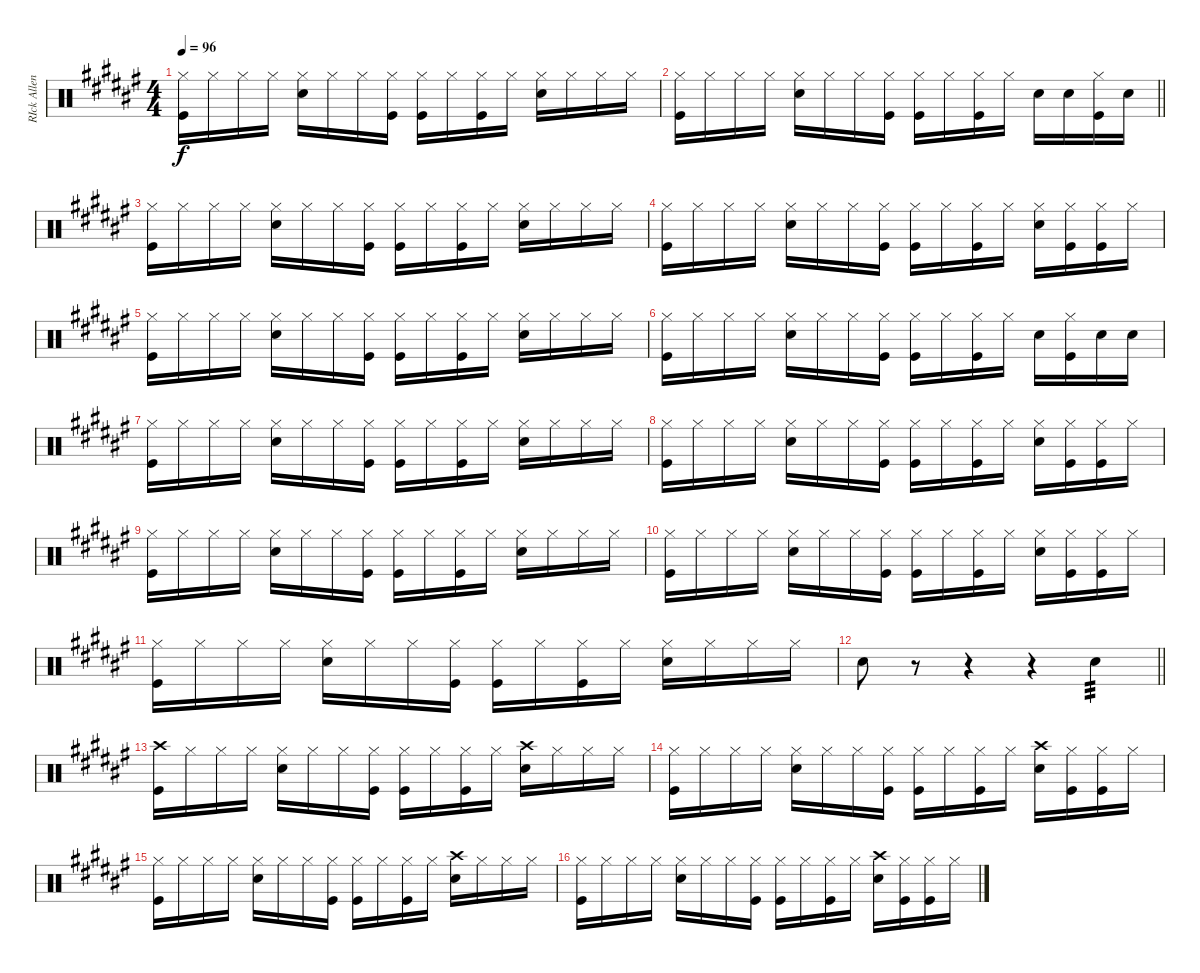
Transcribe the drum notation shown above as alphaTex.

\track ("RIck Allen" "RIck Allen") {instrument percussion}
\staff {score}
\articulation defaults
\ts (4 4)
\tempo 96
\clef neutral
\ks f#
("Hi-Hat (closed)" "Kick (hit)").16{dy f} "Hi-Hat (closed)".16 "Hi-Hat (closed)".16 "Hi-Hat (closed)".16 ("Hi-Hat (closed)" "Snare (hit) 2").16 "Hi-Hat (closed)".16 "Hi-Hat (closed)".16 ("Hi-Hat (closed)" "Kick (hit)").16 ("Hi-Hat (closed)" "Kick (hit)").16 "Hi-Hat (closed)".16 ("Hi-Hat (closed)" "Kick (hit)").16 "Hi-Hat (closed)".16 ("Hi-Hat (closed)" "Snare (hit) 2").16 "Hi-Hat (closed)".16 "Hi-Hat (closed)".16 "Hi-Hat (closed)".16 |
\barLineRight lightlight
("Hi-Hat (closed)" "Kick (hit)").16 "Hi-Hat (closed)".16 "Hi-Hat (closed)".16 "Hi-Hat (closed)".16 ("Hi-Hat (closed)" "Snare (hit) 2").16 "Hi-Hat (closed)".16 "Hi-Hat (closed)".16 ("Hi-Hat (closed)" "Kick (hit)").16 ("Hi-Hat (closed)" "Kick (hit)").16 "Hi-Hat (closed)".16 ("Hi-Hat (closed)" "Kick (hit)").16 "Hi-Hat (closed)".16 "Snare (hit) 2".16 "Snare (hit) 2".16 ("Hi-Hat (closed)" "Kick (hit)").16 "Snare (hit) 2".16 |
("Hi-Hat (closed)" "Kick (hit)").16 "Hi-Hat (closed)".16 "Hi-Hat (closed)".16 "Hi-Hat (closed)".16 ("Hi-Hat (closed)" "Snare (hit) 2").16 "Hi-Hat (closed)".16 "Hi-Hat (closed)".16 ("Hi-Hat (closed)" "Kick (hit)").16 ("Hi-Hat (closed)" "Kick (hit)").16 "Hi-Hat (closed)".16 ("Hi-Hat (closed)" "Kick (hit)").16 "Hi-Hat (closed)".16 ("Hi-Hat (closed)" "Snare (hit) 2").16 "Hi-Hat (closed)".16 "Hi-Hat (closed)".16 "Hi-Hat (closed)".16 |
("Hi-Hat (closed)" "Kick (hit)").16 "Hi-Hat (closed)".16 "Hi-Hat (closed)".16 "Hi-Hat (closed)".16 ("Hi-Hat (closed)" "Snare (hit) 2").16 "Hi-Hat (closed)".16 "Hi-Hat (closed)".16 ("Hi-Hat (closed)" "Kick (hit)").16 ("Hi-Hat (closed)" "Kick (hit)").16 "Hi-Hat (closed)".16 ("Hi-Hat (closed)" "Kick (hit)").16 "Hi-Hat (closed)".16 ("Hi-Hat (closed)" "Snare (hit) 2").16 ("Hi-Hat (closed)" "Kick (hit)").16 ("Hi-Hat (closed)" "Kick (hit)").16 "Hi-Hat (closed)".16 |
("Hi-Hat (closed)" "Kick (hit)").16 "Hi-Hat (closed)".16 "Hi-Hat (closed)".16 "Hi-Hat (closed)".16 ("Hi-Hat (closed)" "Snare (hit) 2").16 "Hi-Hat (closed)".16 "Hi-Hat (closed)".16 ("Hi-Hat (closed)" "Kick (hit)").16 ("Hi-Hat (closed)" "Kick (hit)").16 "Hi-Hat (closed)".16 ("Hi-Hat (closed)" "Kick (hit)").16 "Hi-Hat (closed)".16 ("Hi-Hat (closed)" "Snare (hit) 2").16 "Hi-Hat (closed)".16 "Hi-Hat (closed)".16 "Hi-Hat (closed)".16 |
("Hi-Hat (closed)" "Kick (hit)").16 "Hi-Hat (closed)".16 "Hi-Hat (closed)".16 "Hi-Hat (closed)".16 ("Hi-Hat (closed)" "Snare (hit) 2").16 "Hi-Hat (closed)".16 "Hi-Hat (closed)".16 ("Hi-Hat (closed)" "Kick (hit)").16 ("Hi-Hat (closed)" "Kick (hit)").16 "Hi-Hat (closed)".16 ("Hi-Hat (closed)" "Kick (hit)").16 "Hi-Hat (closed)".16 "Snare (hit) 2".16 ("Hi-Hat (closed)" "Kick (hit)").16 "Snare (hit) 2".16 "Snare (hit) 2".16 |
("Hi-Hat (closed)" "Kick (hit)").16 "Hi-Hat (closed)".16 "Hi-Hat (closed)".16 "Hi-Hat (closed)".16 ("Hi-Hat (closed)" "Snare (hit) 2").16 "Hi-Hat (closed)".16 "Hi-Hat (closed)".16 ("Hi-Hat (closed)" "Kick (hit)").16 ("Hi-Hat (closed)" "Kick (hit)").16 "Hi-Hat (closed)".16 ("Hi-Hat (closed)" "Kick (hit)").16 "Hi-Hat (closed)".16 ("Hi-Hat (closed)" "Snare (hit) 2").16 "Hi-Hat (closed)".16 "Hi-Hat (closed)".16 "Hi-Hat (closed)".16 |
("Hi-Hat (closed)" "Kick (hit)").16 "Hi-Hat (closed)".16 "Hi-Hat (closed)".16 "Hi-Hat (closed)".16 ("Hi-Hat (closed)" "Snare (hit) 2").16 "Hi-Hat (closed)".16 "Hi-Hat (closed)".16 ("Hi-Hat (closed)" "Kick (hit)").16 ("Hi-Hat (closed)" "Kick (hit)").16 "Hi-Hat (closed)".16 ("Hi-Hat (closed)" "Kick (hit)").16 "Hi-Hat (closed)".16 ("Hi-Hat (closed)" "Snare (hit) 2").16 ("Hi-Hat (closed)" "Kick (hit)").16 ("Hi-Hat (closed)" "Kick (hit)").16 "Hi-Hat (closed)".16 |
("Hi-Hat (closed)" "Kick (hit)").16 "Hi-Hat (closed)".16 "Hi-Hat (closed)".16 "Hi-Hat (closed)".16 ("Hi-Hat (closed)" "Snare (hit) 2").16 "Hi-Hat (closed)".16 "Hi-Hat (closed)".16 ("Hi-Hat (closed)" "Kick (hit)").16 ("Hi-Hat (closed)" "Kick (hit)").16 "Hi-Hat (closed)".16 ("Hi-Hat (closed)" "Kick (hit)").16 "Hi-Hat (closed)".16 ("Hi-Hat (closed)" "Snare (hit) 2").16 "Hi-Hat (closed)".16 "Hi-Hat (closed)".16 "Hi-Hat (closed)".16 |
("Hi-Hat (closed)" "Kick (hit)").16 "Hi-Hat (closed)".16 "Hi-Hat (closed)".16 "Hi-Hat (closed)".16 ("Hi-Hat (closed)" "Snare (hit) 2").16 "Hi-Hat (closed)".16 "Hi-Hat (closed)".16 ("Hi-Hat (closed)" "Kick (hit)").16 ("Hi-Hat (closed)" "Kick (hit)").16 "Hi-Hat (closed)".16 ("Hi-Hat (closed)" "Kick (hit)").16 "Hi-Hat (closed)".16 ("Hi-Hat (closed)" "Snare (hit) 2").16 ("Hi-Hat (closed)" "Kick (hit)").16 ("Hi-Hat (closed)" "Kick (hit)").16 "Hi-Hat (closed)".16 |
("Hi-Hat (closed)" "Kick (hit)").16 "Hi-Hat (closed)".16 "Hi-Hat (closed)".16 "Hi-Hat (closed)".16 ("Hi-Hat (closed)" "Snare (hit) 2").16 "Hi-Hat (closed)".16 "Hi-Hat (closed)".16 ("Hi-Hat (closed)" "Kick (hit)").16 ("Hi-Hat (closed)" "Kick (hit)").16 "Hi-Hat (closed)".16 ("Hi-Hat (closed)" "Kick (hit)").16 "Hi-Hat (closed)".16 ("Hi-Hat (closed)" "Snare (hit) 2").16 "Hi-Hat (closed)".16 "Hi-Hat (closed)".16 "Hi-Hat (closed)".16 |
\barLineRight lightlight "Snare (hit) 2".8
r.8 r.4 r.4 "Snare (hit) 2".4{tp 3} |
("Crash high (hit)" "Kick (hit)").16 "Hi-Hat (closed)".16 "Hi-Hat (closed)".16 "Hi-Hat (closed)".16 ("Hi-Hat (closed)" "Snare (hit) 2").16 "Hi-Hat (closed)".16 "Hi-Hat (closed)".16 ("Hi-Hat (closed)" "Kick (hit)").16 ("Hi-Hat (closed)" "Kick (hit)").16 "Hi-Hat (closed)".16 ("Hi-Hat (closed)" "Kick (hit)").16 "Hi-Hat (closed)".16 ("Crash high (hit)" "Snare (hit) 2").16 "Hi-Hat (closed)".16 "Hi-Hat (closed)".16 "Hi-Hat (closed)".16 |
("Hi-Hat (closed)" "Kick (hit)").16 "Hi-Hat (closed)".16 "Hi-Hat (closed)".16 "Hi-Hat (closed)".16 ("Hi-Hat (closed)" "Snare (hit) 2").16 "Hi-Hat (closed)".16 "Hi-Hat (closed)".16 ("Hi-Hat (closed)" "Kick (hit)").16 ("Hi-Hat (closed)" "Kick (hit)").16 "Hi-Hat (closed)".16 ("Hi-Hat (closed)" "Kick (hit)").16 "Hi-Hat (closed)".16 ("Crash high (hit)" "Snare (hit) 2").16 ("Hi-Hat (closed)" "Kick (hit)").16 ("Hi-Hat (closed)" "Kick (hit)").16 "Hi-Hat (closed)".16 |
("Hi-Hat (closed)" "Kick (hit)").16 "Hi-Hat (closed)".16 "Hi-Hat (closed)".16 "Hi-Hat (closed)".16 ("Hi-Hat (closed)" "Snare (hit) 2").16 "Hi-Hat (closed)".16 "Hi-Hat (closed)".16 ("Hi-Hat (closed)" "Kick (hit)").16 ("Hi-Hat (closed)" "Kick (hit)").16 "Hi-Hat (closed)".16 ("Hi-Hat (closed)" "Kick (hit)").16 "Hi-Hat (closed)".16 ("Crash high (hit)" "Snare (hit) 2").16 "Hi-Hat (closed)".16 "Hi-Hat (closed)".16 "Hi-Hat (closed)".16 |
("Hi-Hat (closed)" "Kick (hit)").16 "Hi-Hat (closed)".16 "Hi-Hat (closed)".16 "Hi-Hat (closed)".16 ("Hi-Hat (closed)" "Snare (hit) 2").16 "Hi-Hat (closed)".16 "Hi-Hat (closed)".16 ("Hi-Hat (closed)" "Kick (hit)").16 ("Hi-Hat (closed)" "Kick (hit)").16 "Hi-Hat (closed)".16 ("Hi-Hat (closed)" "Kick (hit)").16 "Hi-Hat (closed)".16 ("Crash high (hit)" "Snare (hit) 2").16 ("Hi-Hat (closed)" "Kick (hit)").16 ("Hi-Hat (closed)" "Kick (hit)").16 "Hi-Hat (closed)".16
